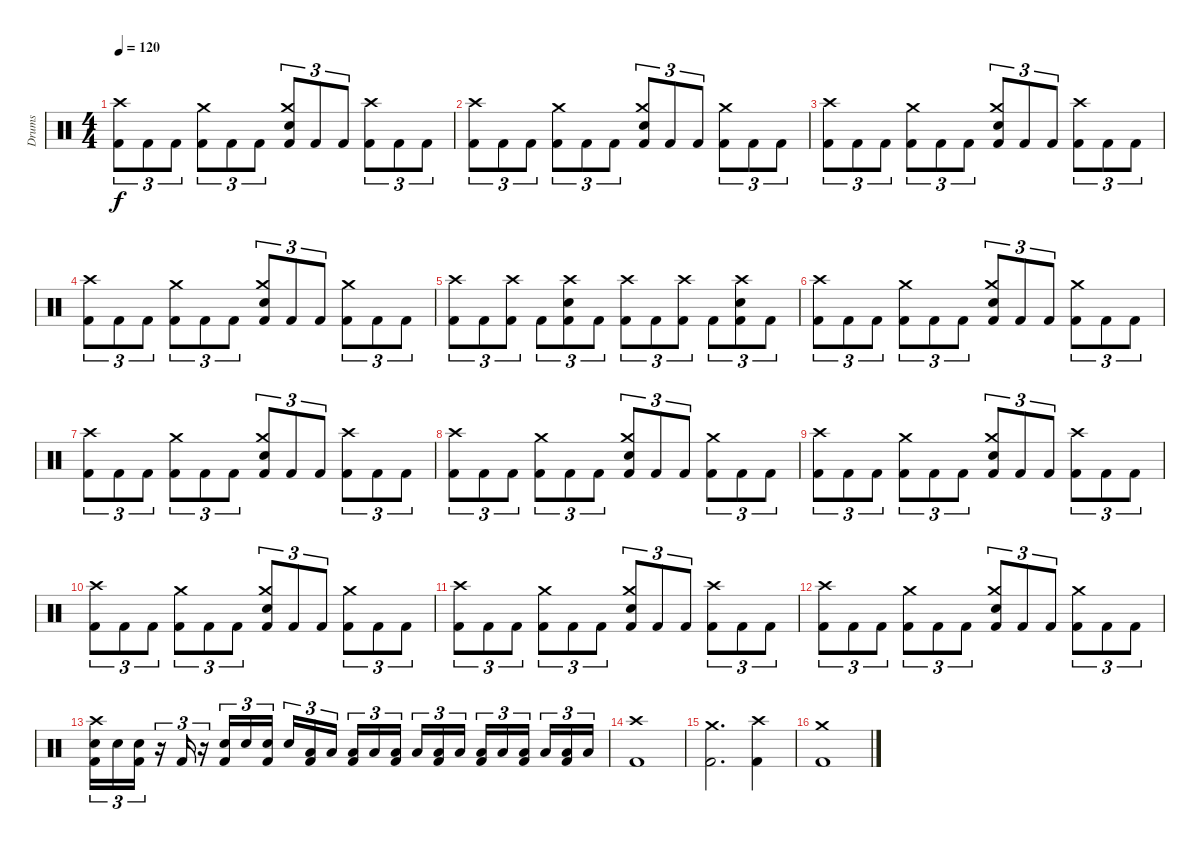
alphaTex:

\track ("Drums" "Drums") {instrument percussion}
\staff {score}
\articulation defaults
\ts (4 4)
\tempo 120
\clef neutral
\ks c
("Crash high (hit)" "Kick (hit) 2").8{tu (3 2) dy f} "Kick (hit) 2".8{tu (3 2)} "Kick (hit) 2".8{tu (3 2)} ("Crash medium (hit)" "Kick (hit) 2").8{tu (3 2)} "Kick (hit) 2".8{tu (3 2)} "Kick (hit) 2".8{tu (3 2)} ("Crash medium (hit)" "Electric Snare (hit)" "Kick (hit) 2").8{tu (3 2)} "Kick (hit) 2".8{tu (3 2)} "Kick (hit) 2".8{tu (3 2)} ("Crash high (hit)" "Kick (hit) 2").8{tu (3 2)} "Kick (hit) 2".8{tu (3 2)} "Kick (hit) 2".8{tu (3 2)} |
("Crash high (hit)" "Kick (hit) 2").8{tu (3 2)} "Kick (hit) 2".8{tu (3 2)} "Kick (hit) 2".8{tu (3 2)} ("Crash medium (hit)" "Kick (hit) 2").8{tu (3 2)} "Kick (hit) 2".8{tu (3 2)} "Kick (hit) 2".8{tu (3 2)} ("Crash medium (hit)" "Electric Snare (hit)" "Kick (hit) 2").8{tu (3 2)} "Kick (hit) 2".8{tu (3 2)} "Kick (hit) 2".8{tu (3 2)} ("Crash medium (hit)" "Kick (hit) 2").8{tu (3 2)} "Kick (hit) 2".8{tu (3 2)} "Kick (hit) 2".8{tu (3 2)} |
("Crash high (hit)" "Kick (hit) 2").8{tu (3 2)} "Kick (hit) 2".8{tu (3 2)} "Kick (hit) 2".8{tu (3 2)} ("Crash medium (hit)" "Kick (hit) 2").8{tu (3 2)} "Kick (hit) 2".8{tu (3 2)} "Kick (hit) 2".8{tu (3 2)} ("Crash medium (hit)" "Electric Snare (hit)" "Kick (hit) 2").8{tu (3 2)} "Kick (hit) 2".8{tu (3 2)} "Kick (hit) 2".8{tu (3 2)} ("Crash high (hit)" "Kick (hit) 2").8{tu (3 2)} "Kick (hit) 2".8{tu (3 2)} "Kick (hit) 2".8{tu (3 2)} |
("Crash high (hit)" "Kick (hit) 2").8{tu (3 2)} "Kick (hit) 2".8{tu (3 2)} "Kick (hit) 2".8{tu (3 2)} ("Crash medium (hit)" "Kick (hit) 2").8{tu (3 2)} "Kick (hit) 2".8{tu (3 2)} "Kick (hit) 2".8{tu (3 2)} ("Crash medium (hit)" "Electric Snare (hit)" "Kick (hit) 2").8{tu (3 2)} "Kick (hit) 2".8{tu (3 2)} "Kick (hit) 2".8{tu (3 2)} ("Crash medium (hit)" "Kick (hit) 2").8{tu (3 2)} "Kick (hit) 2".8{tu (3 2)} "Kick (hit) 2".8{tu (3 2)} |
("Crash high (hit)" "Kick (hit) 2").8{tu (3 2)} "Kick (hit) 2".8{tu (3 2)} ("Crash high (hit)" "Kick (hit) 2").8{tu (3 2)} "Kick (hit) 2".8{tu (3 2)} ("Crash high (hit)" "Electric Snare (hit)" "Kick (hit) 2").8{tu (3 2)} "Kick (hit) 2".8{tu (3 2)} ("Crash high (hit)" "Kick (hit) 2").8{tu (3 2)} "Kick (hit) 2".8{tu (3 2)} ("Crash high (hit)" "Kick (hit) 2").8{tu (3 2)} "Kick (hit) 2".8{tu (3 2)} ("Crash high (hit)" "Electric Snare (hit)" "Kick (hit) 2").8{tu (3 2)} "Kick (hit) 2".8{tu (3 2)} |
("Crash high (hit)" "Kick (hit) 2").8{tu (3 2)} "Kick (hit) 2".8{tu (3 2)} "Kick (hit) 2".8{tu (3 2)} ("Crash medium (hit)" "Kick (hit) 2").8{tu (3 2)} "Kick (hit) 2".8{tu (3 2)} "Kick (hit) 2".8{tu (3 2)} ("Crash medium (hit)" "Electric Snare (hit)" "Kick (hit) 2").8{tu (3 2)} "Kick (hit) 2".8{tu (3 2)} "Kick (hit) 2".8{tu (3 2)} ("Crash medium (hit)" "Kick (hit) 2").8{tu (3 2)} "Kick (hit) 2".8{tu (3 2)} "Kick (hit) 2".8{tu (3 2)} |
("Crash high (hit)" "Kick (hit) 2").8{tu (3 2)} "Kick (hit) 2".8{tu (3 2)} "Kick (hit) 2".8{tu (3 2)} ("Crash medium (hit)" "Kick (hit) 2").8{tu (3 2)} "Kick (hit) 2".8{tu (3 2)} "Kick (hit) 2".8{tu (3 2)} ("Crash medium (hit)" "Electric Snare (hit)" "Kick (hit) 2").8{tu (3 2)} "Kick (hit) 2".8{tu (3 2)} "Kick (hit) 2".8{tu (3 2)} ("Crash high (hit)" "Kick (hit) 2").8{tu (3 2)} "Kick (hit) 2".8{tu (3 2)} "Kick (hit) 2".8{tu (3 2)} |
("Crash high (hit)" "Kick (hit) 2").8{tu (3 2)} "Kick (hit) 2".8{tu (3 2)} "Kick (hit) 2".8{tu (3 2)} ("Crash medium (hit)" "Kick (hit) 2").8{tu (3 2)} "Kick (hit) 2".8{tu (3 2)} "Kick (hit) 2".8{tu (3 2)} ("Crash medium (hit)" "Electric Snare (hit)" "Kick (hit) 2").8{tu (3 2)} "Kick (hit) 2".8{tu (3 2)} "Kick (hit) 2".8{tu (3 2)} ("Crash medium (hit)" "Kick (hit) 2").8{tu (3 2)} "Kick (hit) 2".8{tu (3 2)} "Kick (hit) 2".8{tu (3 2)} |
("Crash high (hit)" "Kick (hit) 2").8{tu (3 2)} "Kick (hit) 2".8{tu (3 2)} "Kick (hit) 2".8{tu (3 2)} ("Crash medium (hit)" "Kick (hit) 2").8{tu (3 2)} "Kick (hit) 2".8{tu (3 2)} "Kick (hit) 2".8{tu (3 2)} ("Crash medium (hit)" "Electric Snare (hit)" "Kick (hit) 2").8{tu (3 2)} "Kick (hit) 2".8{tu (3 2)} "Kick (hit) 2".8{tu (3 2)} ("Crash high (hit)" "Kick (hit) 2").8{tu (3 2)} "Kick (hit) 2".8{tu (3 2)} "Kick (hit) 2".8{tu (3 2)} |
("Crash high (hit)" "Kick (hit) 2").8{tu (3 2)} "Kick (hit) 2".8{tu (3 2)} "Kick (hit) 2".8{tu (3 2)} ("Crash medium (hit)" "Kick (hit) 2").8{tu (3 2)} "Kick (hit) 2".8{tu (3 2)} "Kick (hit) 2".8{tu (3 2)} ("Crash medium (hit)" "Electric Snare (hit)" "Kick (hit) 2").8{tu (3 2)} "Kick (hit) 2".8{tu (3 2)} "Kick (hit) 2".8{tu (3 2)} ("Crash medium (hit)" "Kick (hit) 2").8{tu (3 2)} "Kick (hit) 2".8{tu (3 2)} "Kick (hit) 2".8{tu (3 2)} |
("Crash high (hit)" "Kick (hit) 2").8{tu (3 2)} "Kick (hit) 2".8{tu (3 2)} "Kick (hit) 2".8{tu (3 2)} ("Crash medium (hit)" "Kick (hit) 2").8{tu (3 2)} "Kick (hit) 2".8{tu (3 2)} "Kick (hit) 2".8{tu (3 2)} ("Crash medium (hit)" "Electric Snare (hit)" "Kick (hit) 2").8{tu (3 2)} "Kick (hit) 2".8{tu (3 2)} "Kick (hit) 2".8{tu (3 2)} ("Crash high (hit)" "Kick (hit) 2").8{tu (3 2)} "Kick (hit) 2".8{tu (3 2)} "Kick (hit) 2".8{tu (3 2)} |
("Crash high (hit)" "Kick (hit) 2").8{tu (3 2)} "Kick (hit) 2".8{tu (3 2)} "Kick (hit) 2".8{tu (3 2)} ("Crash medium (hit)" "Kick (hit) 2").8{tu (3 2)} "Kick (hit) 2".8{tu (3 2)} "Kick (hit) 2".8{tu (3 2)} ("Crash medium (hit)" "Electric Snare (hit)" "Kick (hit) 2").8{tu (3 2)} "Kick (hit) 2".8{tu (3 2)} "Kick (hit) 2".8{tu (3 2)} ("Crash medium (hit)" "Kick (hit) 2").8{tu (3 2)} "Kick (hit) 2".8{tu (3 2)} "Kick (hit) 2".8{tu (3 2)} |
("Crash high (hit)" "Electric Snare (hit)" "Kick (hit) 2").16{tu (3 2)} "Electric Snare (hit)".16{tu (3 2)} ("Electric Snare (hit)" "Kick (hit) 2").16{tu (3 2)} r.16{tu (3 2)} "Kick (hit) 2".16{tu (3 2)} r.16{tu (3 2)} ("Electric Snare (hit)" "Kick (hit) 2").16{tu (3 2)} "Electric Snare (hit)".16{tu (3 2)} ("Electric Snare (hit)" "Kick (hit) 2").16{tu (3 2)} "Electric Snare (hit)".16{tu (3 2)} ("Low Tom (hit)" "Kick (hit) 2").16{tu (3 2)} "Low Tom (hit)".16{tu (3 2)} ("Low Tom (hit)" "Kick (hit) 2").16{tu (3 2)} "Low Tom (hit)".16{tu (3 2)} ("Low Tom (hit)" "Kick (hit) 2").16{tu (3 2)} "Low Tom (hit)".16{tu (3 2)} ("Low Tom (hit)" "Kick (hit) 2").16{tu (3 2)} "Low Tom (hit)".16{tu (3 2)} ("Low Floor Tom (hit)" "Kick (hit) 2").16{tu (3 2)} "Low Floor Tom (hit)".16{tu (3 2)} ("Low Floor Tom (hit)" "Kick (hit) 2").16{tu (3 2)} "Low Floor Tom (hit)".16{tu (3 2)} ("Low Floor Tom (hit)" "Kick (hit) 2").16{tu (3 2)} "Low Floor Tom (hit)".16{tu (3 2)} |
\section ("" "")
("Crash high (hit)" "Kick (hit) 2").1 |
("Crash medium (hit)" "Kick (hit) 2").2{d} ("Crash high (hit)" "Kick (hit) 2").4 |
("Crash medium (hit)" "Kick (hit) 2").1
